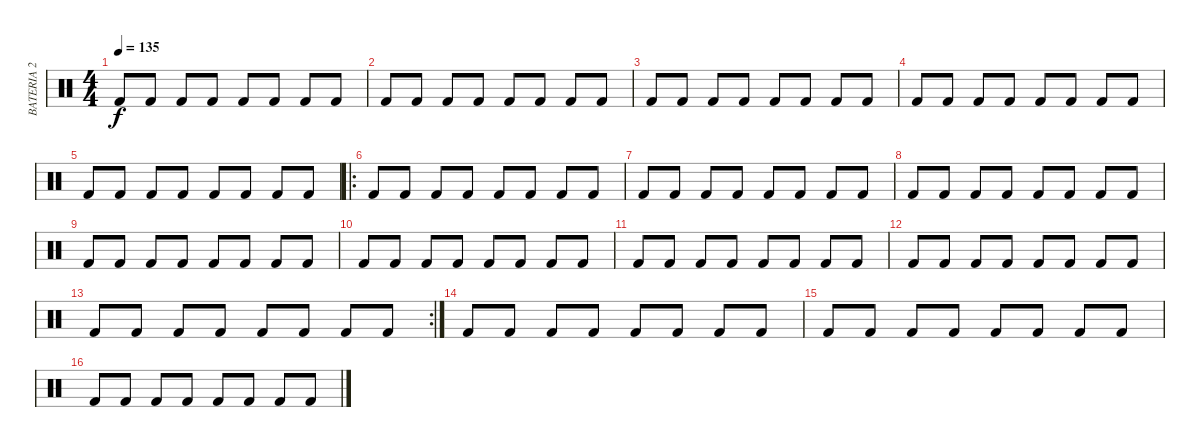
\track ("BATERIA 2" "BATERIA 2") {instrument percussion}
\staff {score}
\articulation defaults
\ts (4 4)
\tempo 135
\clef neutral
\ks c "Kick (hit) 2".8{dy f} "Kick (hit) 2".8 "Kick (hit) 2".8 "Kick (hit) 2".8 "Kick (hit) 2".8 "Kick (hit) 2".8 "Kick (hit) 2".8 "Kick (hit) 2".8
|
"Kick (hit) 2".8 "Kick (hit) 2".8 "Kick (hit) 2".8 "Kick (hit) 2".8 "Kick (hit) 2".8 "Kick (hit) 2".8 "Kick (hit) 2".8 "Kick (hit) 2".8 |
"Kick (hit) 2".8 "Kick (hit) 2".8 "Kick (hit) 2".8 "Kick (hit) 2".8 "Kick (hit) 2".8 "Kick (hit) 2".8 "Kick (hit) 2".8 "Kick (hit) 2".8 |
"Kick (hit) 2".8 "Kick (hit) 2".8 "Kick (hit) 2".8 "Kick (hit) 2".8 "Kick (hit) 2".8 "Kick (hit) 2".8 "Kick (hit) 2".8 "Kick (hit) 2".8 |
"Kick (hit) 2".8 "Kick (hit) 2".8 "Kick (hit) 2".8 "Kick (hit) 2".8 "Kick (hit) 2".8 "Kick (hit) 2".8 "Kick (hit) 2".8 "Kick (hit) 2".8 |
\ro "Kick (hit) 2".8 "Kick (hit) 2".8 "Kick (hit) 2".8 "Kick (hit) 2".8 "Kick (hit) 2".8 "Kick (hit) 2".8 "Kick (hit) 2".8 "Kick (hit) 2".8
|
"Kick (hit) 2".8 "Kick (hit) 2".8 "Kick (hit) 2".8 "Kick (hit) 2".8 "Kick (hit) 2".8 "Kick (hit) 2".8 "Kick (hit) 2".8 "Kick (hit) 2".8 |
"Kick (hit) 2".8 "Kick (hit) 2".8 "Kick (hit) 2".8 "Kick (hit) 2".8 "Kick (hit) 2".8 "Kick (hit) 2".8 "Kick (hit) 2".8 "Kick (hit) 2".8 |
"Kick (hit) 2".8 "Kick (hit) 2".8 "Kick (hit) 2".8 "Kick (hit) 2".8 "Kick (hit) 2".8 "Kick (hit) 2".8 "Kick (hit) 2".8 "Kick (hit) 2".8 |
"Kick (hit) 2".8 "Kick (hit) 2".8 "Kick (hit) 2".8 "Kick (hit) 2".8 "Kick (hit) 2".8 "Kick (hit) 2".8 "Kick (hit) 2".8 "Kick (hit) 2".8 |
"Kick (hit) 2".8 "Kick (hit) 2".8 "Kick (hit) 2".8 "Kick (hit) 2".8 "Kick (hit) 2".8 "Kick (hit) 2".8 "Kick (hit) 2".8 "Kick (hit) 2".8 |
"Kick (hit) 2".8 "Kick (hit) 2".8 "Kick (hit) 2".8 "Kick (hit) 2".8 "Kick (hit) 2".8 "Kick (hit) 2".8 "Kick (hit) 2".8 "Kick (hit) 2".8 |
\rc 2 "Kick (hit) 2".8 "Kick (hit) 2".8 "Kick (hit) 2".8 "Kick (hit) 2".8 "Kick (hit) 2".8 "Kick (hit) 2".8 "Kick (hit) 2".8 "Kick (hit) 2".8
|
"Kick (hit) 2".8 "Kick (hit) 2".8 "Kick (hit) 2".8 "Kick (hit) 2".8 "Kick (hit) 2".8 "Kick (hit) 2".8 "Kick (hit) 2".8 "Kick (hit) 2".8 |
"Kick (hit) 2".8 "Kick (hit) 2".8 "Kick (hit) 2".8 "Kick (hit) 2".8 "Kick (hit) 2".8 "Kick (hit) 2".8 "Kick (hit) 2".8 "Kick (hit) 2".8 |
"Kick (hit) 2".8 "Kick (hit) 2".8 "Kick (hit) 2".8 "Kick (hit) 2".8 "Kick (hit) 2".8 "Kick (hit) 2".8 "Kick (hit) 2".8 "Kick (hit) 2".8
